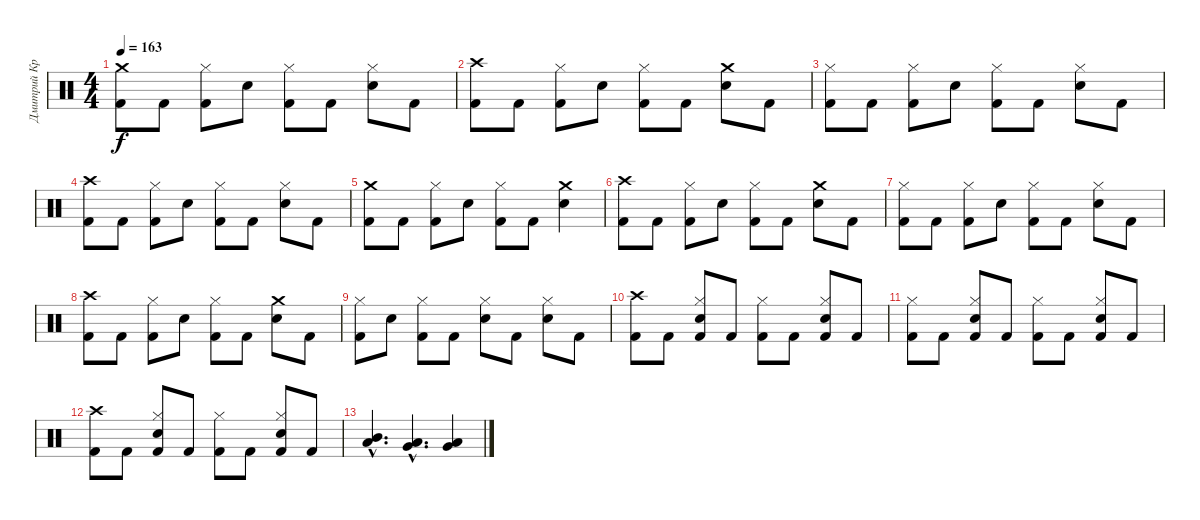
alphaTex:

\track ("Дмитрий Кривенков" "Дмитрий Кр") {instrument percussion}
\staff {score}
\articulation defaults
\ts (4 4)
\tempo 163
\clef neutral
\ks c
("Crash medium (hit)" "Kick (hit) 2").8{dy f} "Kick (hit) 2".8 ("Hi-Hat (closed)" "Kick (hit) 2").8 "Electric Snare (hit)".8 ("Hi-Hat (closed)" "Kick (hit) 2").8 "Kick (hit) 2".8 ("Hi-Hat (closed)" "Electric Snare (hit)").8 "Kick (hit) 2".8 |
("Crash high (hit)" "Kick (hit) 2").8 "Kick (hit) 2".8 ("Hi-Hat (closed)" "Kick (hit) 2").8 "Electric Snare (hit)".8 ("Hi-Hat (closed)" "Kick (hit) 2").8 "Kick (hit) 2".8 ("Crash medium (hit)" "Electric Snare (hit)").8 "Kick (hit) 2".8 |
("Hi-Hat (closed)" "Kick (hit) 2").8 "Kick (hit) 2".8 ("Hi-Hat (closed)" "Kick (hit) 2").8 "Electric Snare (hit)".8 ("Hi-Hat (closed)" "Kick (hit) 2").8 "Kick (hit) 2".8 ("Hi-Hat (closed)" "Electric Snare (hit)").8 "Kick (hit) 2".8 |
("Crash high (hit)" "Kick (hit) 2").8 "Kick (hit) 2".8 ("Hi-Hat (closed)" "Kick (hit) 2").8 "Electric Snare (hit)".8 ("Hi-Hat (closed)" "Kick (hit) 2").8 "Kick (hit) 2".8 ("Hi-Hat (closed)" "Electric Snare (hit)").8 "Kick (hit) 2".8 |
("Crash medium (hit)" "Kick (hit) 2").8 "Kick (hit) 2".8 ("Hi-Hat (closed)" "Kick (hit) 2").8 "Electric Snare (hit)".8 ("Hi-Hat (closed)" "Kick (hit) 2").8 "Kick (hit) 2".8 ("Crash medium (hit)" "Electric Snare (hit)").4 |
("Crash high (hit)" "Kick (hit) 2").8 "Kick (hit) 2".8 ("Hi-Hat (closed)" "Kick (hit) 2").8 "Electric Snare (hit)".8 ("Hi-Hat (closed)" "Kick (hit) 2").8 "Kick (hit) 2".8 ("Crash medium (hit)" "Electric Snare (hit)").8 "Kick (hit) 2".8 |
("Hi-Hat (closed)" "Kick (hit) 2").8 "Kick (hit) 2".8 ("Hi-Hat (closed)" "Kick (hit) 2").8 "Electric Snare (hit)".8 ("Hi-Hat (closed)" "Kick (hit) 2").8 "Kick (hit) 2".8 ("Hi-Hat (closed)" "Electric Snare (hit)").8 "Kick (hit) 2".8 |
("Crash high (hit)" "Kick (hit) 2").8 "Kick (hit) 2".8 ("Hi-Hat (closed)" "Kick (hit) 2").8 "Electric Snare (hit)".8 ("Hi-Hat (closed)" "Kick (hit) 2").8 "Kick (hit) 2".8 ("Crash medium (hit)" "Electric Snare (hit)").8 "Kick (hit) 2".8 |
("Hi-Hat (closed)" "Kick (hit) 2").8 "Electric Snare (hit)".8 ("Hi-Hat (closed)" "Kick (hit) 2").8 "Kick (hit) 2".8 ("Hi-Hat (closed)" "Electric Snare (hit)").8 "Kick (hit) 2".8 ("Hi-Hat (closed)" "Electric Snare (hit)").8 "Kick (hit) 2".8 |
("Crash high (hit)" "Kick (hit) 2").8 "Kick (hit) 2".8 ("Hi-Hat (closed)" "Electric Snare (hit)" "Kick (hit) 2").8 "Kick (hit) 2".8 ("Hi-Hat (closed)" "Kick (hit) 2").8 "Kick (hit) 2".8 ("Hi-Hat (closed)" "Electric Snare (hit)" "Kick (hit) 2").8 "Kick (hit) 2".8 |
("Hi-Hat (closed)" "Kick (hit) 2").8 "Kick (hit) 2".8 ("Hi-Hat (closed)" "Electric Snare (hit)" "Kick (hit) 2").8 "Kick (hit) 2".8 ("Hi-Hat (closed)" "Kick (hit) 2").8 "Kick (hit) 2".8 ("Hi-Hat (closed)" "Electric Snare (hit)" "Kick (hit) 2").8 "Kick (hit) 2".8 |
("Crash high (hit)" "Kick (hit) 2").8 "Kick (hit) 2".8 ("Hi-Hat (closed)" "Electric Snare (hit)" "Kick (hit) 2").8 "Kick (hit) 2".8 ("Hi-Hat (closed)" "Kick (hit) 2").8 "Kick (hit) 2".8 ("Hi-Hat (closed)" "Electric Snare (hit)" "Kick (hit) 2").8 "Kick (hit) 2".8 |
("Mid Tom (hit)"{hac} "Low Tom (hit)"{hac}).4{d} ("Low Tom (hit)"{hac} "Very Low Tom (hit)"{hac}).4{d} ("Very Low Tom (hit)" "Low Floor Tom (hit)").4
